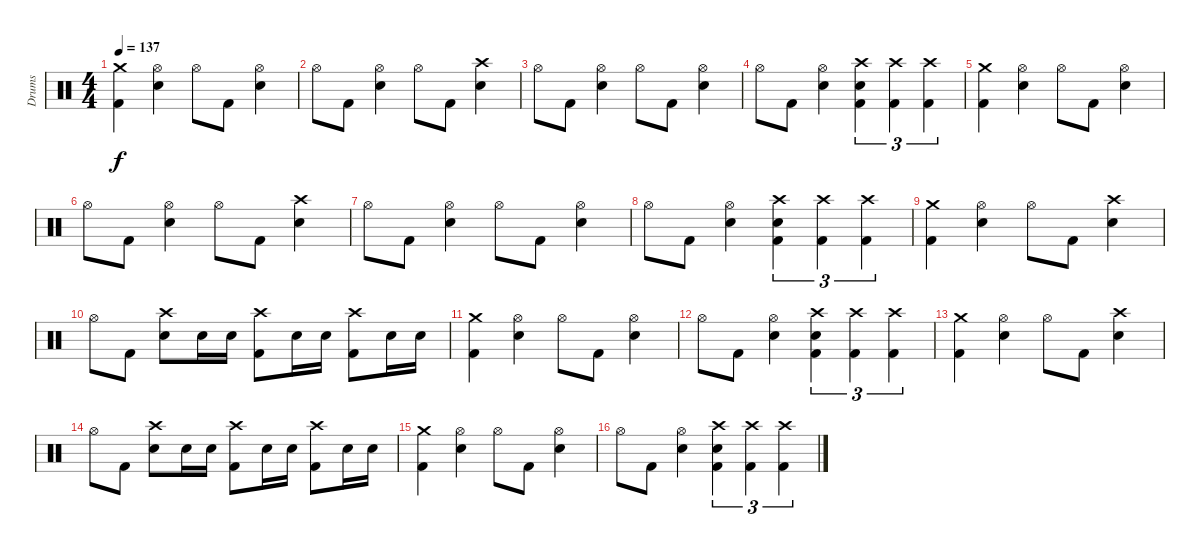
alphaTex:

\track ("Drums" "Drums") {instrument percussion}
\staff {score}
\articulation defaults
\ts (4 4)
\tempo 137
\clef neutral
\ks c
("Crash medium (hit)" "Kick (hit) 2").4{dy f} ("Hi-Hat (open)" "Snare (hit) 2").4 "Hi-Hat (open)".8 "Kick (hit) 2".8 ("Hi-Hat (open)" "Snare (hit) 2").4 |
"Hi-Hat (open)".8 "Kick (hit) 2".8 ("Hi-Hat (open)" "Snare (hit) 2").4 "Hi-Hat (open)".8 "Kick (hit) 2".8 ("Crash high (hit)" "Snare (hit) 2").4 |
"Hi-Hat (open)".8 "Kick (hit) 2".8 ("Hi-Hat (open)" "Snare (hit) 2").4 "Hi-Hat (open)".8 "Kick (hit) 2".8 ("Hi-Hat (open)" "Snare (hit) 2").4 |
"Hi-Hat (open)".8 "Kick (hit) 2".8 ("Hi-Hat (open)" "Snare (hit) 2").4 ("Crash high (hit)" "Snare (hit) 2" "Kick (hit) 2").4{tu (3 2)} ("Crash high (hit)" "Kick (hit) 2").4{tu (3 2)} ("Crash high (hit)" "Kick (hit) 2").4{tu (3 2)} |
("Crash medium (hit)" "Kick (hit) 2").4 ("Hi-Hat (open)" "Snare (hit) 2").4 "Hi-Hat (open)".8 "Kick (hit) 2".8 ("Hi-Hat (open)" "Snare (hit) 2").4 |
"Hi-Hat (open)".8 "Kick (hit) 2".8 ("Hi-Hat (open)" "Snare (hit) 2").4 "Hi-Hat (open)".8 "Kick (hit) 2".8 ("Crash high (hit)" "Snare (hit) 2").4 |
"Hi-Hat (open)".8 "Kick (hit) 2".8 ("Hi-Hat (open)" "Snare (hit) 2").4 "Hi-Hat (open)".8 "Kick (hit) 2".8 ("Hi-Hat (open)" "Snare (hit) 2").4 |
"Hi-Hat (open)".8 "Kick (hit) 2".8 ("Hi-Hat (open)" "Snare (hit) 2").4 ("Crash high (hit)" "Snare (hit) 2" "Kick (hit) 2").4{tu (3 2)} ("Crash high (hit)" "Kick (hit) 2").4{tu (3 2)} ("Crash high (hit)" "Kick (hit) 2").4{tu (3 2)} |
("Crash medium (hit)" "Kick (hit) 2").4 ("Hi-Hat (open)" "Snare (hit) 2").4 "Hi-Hat (open)".8 "Kick (hit) 2".8 ("Crash high (hit)" "Snare (hit) 2").4 |
"Hi-Hat (open)".8 "Kick (hit) 2".8 ("Crash high (hit)" "Snare (hit) 2").8 "Snare (hit) 2".16 "Snare (hit) 2".16 ("Crash high (hit)" "Kick (hit) 2").8 "Snare (hit) 2".16 "Snare (hit) 2".16 ("Crash high (hit)" "Kick (hit) 2").8 "Snare (hit) 2".16 "Snare (hit) 2".16 |
("Crash medium (hit)" "Kick (hit) 2").4 ("Hi-Hat (open)" "Snare (hit) 2").4 "Hi-Hat (open)".8 "Kick (hit) 2".8 ("Hi-Hat (open)" "Snare (hit) 2").4 |
"Hi-Hat (open)".8 "Kick (hit) 2".8 ("Hi-Hat (open)" "Snare (hit) 2").4 ("Crash high (hit)" "Snare (hit) 2" "Kick (hit) 2").4{tu (3 2)} ("Crash high (hit)" "Kick (hit) 2").4{tu (3 2)} ("Crash high (hit)" "Kick (hit) 2").4{tu (3 2)} |
("Crash medium (hit)" "Kick (hit) 2").4 ("Hi-Hat (open)" "Snare (hit) 2").4 "Hi-Hat (open)".8 "Kick (hit) 2".8 ("Crash high (hit)" "Snare (hit) 2").4 |
"Hi-Hat (open)".8 "Kick (hit) 2".8 ("Crash high (hit)" "Snare (hit) 2").8 "Snare (hit) 2".16 "Snare (hit) 2".16 ("Crash high (hit)" "Kick (hit) 2").8 "Snare (hit) 2".16 "Snare (hit) 2".16 ("Crash high (hit)" "Kick (hit) 2").8 "Snare (hit) 2".16 "Snare (hit) 2".16 |
("Crash medium (hit)" "Kick (hit) 2").4 ("Hi-Hat (open)" "Snare (hit) 2").4 "Hi-Hat (open)".8 "Kick (hit) 2".8 ("Hi-Hat (open)" "Snare (hit) 2").4 |
"Hi-Hat (open)".8 "Kick (hit) 2".8 ("Hi-Hat (open)" "Snare (hit) 2").4 ("Crash high (hit)" "Snare (hit) 2" "Kick (hit) 2").4{tu (3 2)} ("Crash high (hit)" "Kick (hit) 2").4{tu (3 2)} ("Crash high (hit)" "Kick (hit) 2").4{tu (3 2)}
